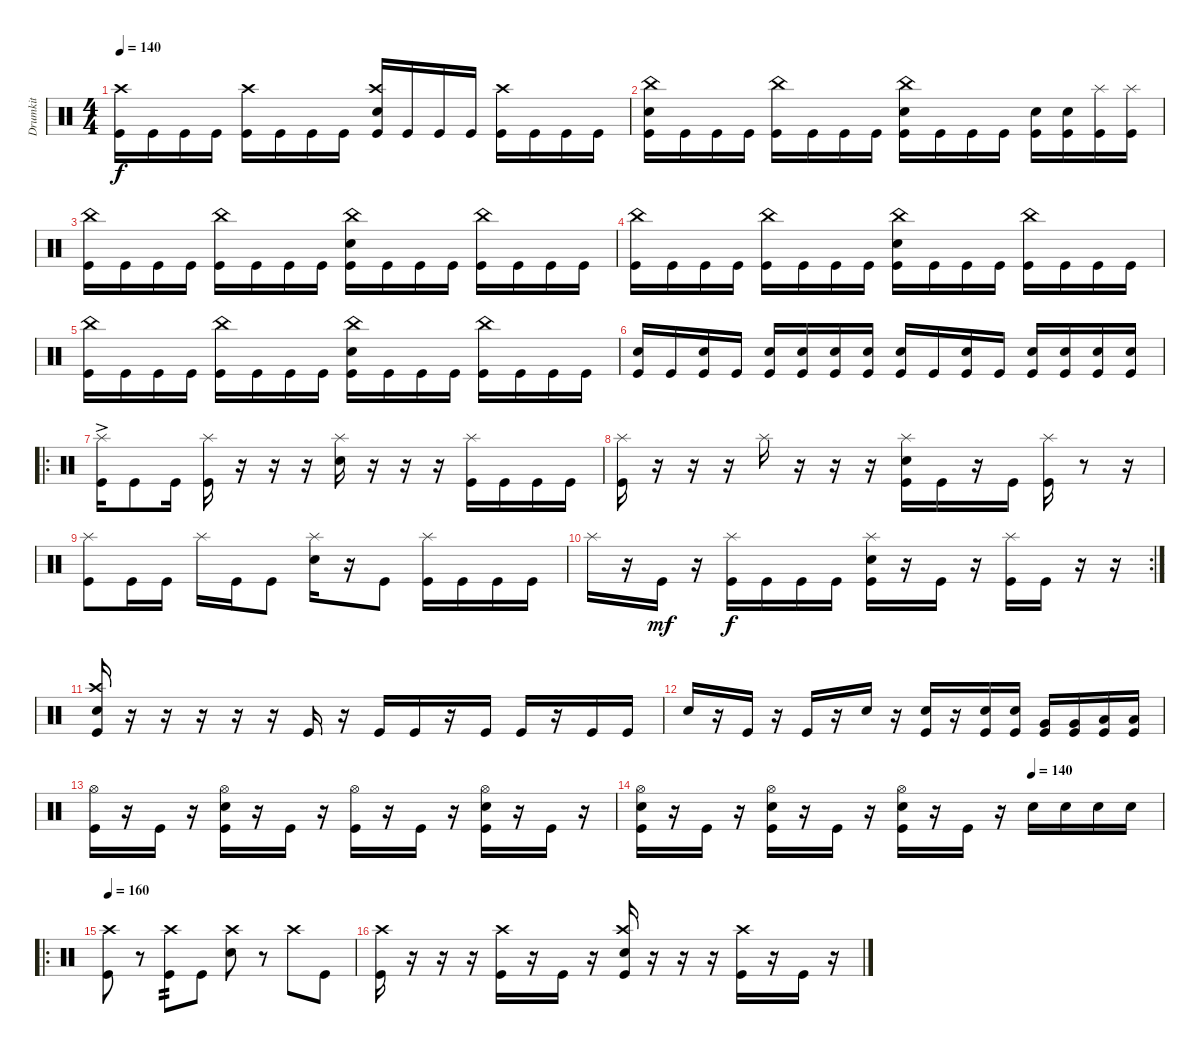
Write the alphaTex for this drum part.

\track ("Drumkit" "Drumkit") {instrument percussion}
\staff {score}
\articulation defaults
\ts (4 4)
\tempo 140
\clef neutral
\ks c
("Kick (hit)" "Crash high (hit)").16{dy f} "Kick (hit)".16 "Kick (hit)".16 "Kick (hit)".16 ("Kick (hit)" "Crash high (hit)").16 "Kick (hit)".16 "Kick (hit)".16 "Kick (hit)".16 ("Kick (hit)" "Crash high (hit)" "Snare (hit) 2").16 "Kick (hit)".16 "Kick (hit)".16 "Kick (hit)".16 ("Kick (hit)" "Crash high (hit)").16 "Kick (hit)".16 "Kick (hit)".16 "Kick (hit)".16 |
("Kick (hit)" "China (hit)" "Snare (hit) 2").16 "Kick (hit)".16 "Kick (hit)".16 "Kick (hit)".16 ("Kick (hit)" "China (hit)").16 "Kick (hit)".16 "Kick (hit)".16 "Kick (hit)".16 ("Kick (hit)" "China (hit)" "Snare (hit) 2").16 "Kick (hit)".16 "Kick (hit)".16 "Kick (hit)".16 ("Kick (hit)" "Snare (hit) 2").16 ("Kick (hit)" "Snare (hit) 2").16 ("Kick (hit)" "Splash (hit)").16 ("Kick (hit)" "Splash (hit)").16 |
("Kick (hit)" "China (hit)").16 "Kick (hit)".16 "Kick (hit)".16 "Kick (hit)".16 ("Kick (hit)" "China (hit)").16 "Kick (hit)".16 "Kick (hit)".16 "Kick (hit)".16 ("Kick (hit)" "China (hit)" "Snare (hit) 2").16 "Kick (hit)".16 "Kick (hit)".16 "Kick (hit)".16 ("Kick (hit)" "China (hit)").16 "Kick (hit)".16 "Kick (hit)".16 "Kick (hit)".16 |
("Kick (hit)" "China (hit)").16 "Kick (hit)".16 "Kick (hit)".16 "Kick (hit)".16 ("Kick (hit)" "China (hit)").16 "Kick (hit)".16 "Kick (hit)".16 "Kick (hit)".16 ("Kick (hit)" "China (hit)" "Snare (hit) 2").16 "Kick (hit)".16 "Kick (hit)".16 "Kick (hit)".16 ("Kick (hit)" "China (hit)").16 "Kick (hit)".16 "Kick (hit)".16 "Kick (hit)".16 |
("Kick (hit)" "China (hit)").16 "Kick (hit)".16 "Kick (hit)".16 "Kick (hit)".16 ("Kick (hit)" "China (hit)").16 "Kick (hit)".16 "Kick (hit)".16 "Kick (hit)".16 ("Kick (hit)" "China (hit)" "Snare (hit) 2").16 "Kick (hit)".16 "Kick (hit)".16 "Kick (hit)".16 ("Kick (hit)" "China (hit)").16 "Kick (hit)".16 "Kick (hit)".16 "Kick (hit)".16 |
("Kick (hit)" "Snare (hit) 2").16 "Kick (hit)".16 ("Kick (hit)" "Snare (hit) 2").16 "Kick (hit)".16 ("Kick (hit)" "Snare (hit) 2").16 ("Kick (hit)" "Snare (hit) 2").16 ("Kick (hit)" "Snare (hit) 2").16 ("Kick (hit)" "Snare (hit) 2").16 ("Kick (hit)" "Snare (hit) 2").16 "Kick (hit)".16 ("Kick (hit)" "Snare (hit) 2").16 "Kick (hit)".16 ("Kick (hit)" "Snare (hit) 2").16 ("Kick (hit)" "Snare (hit) 2").16 ("Kick (hit)" "Snare (hit) 2").16 ("Kick (hit)" "Snare (hit) 2").16 |
\ro
("Kick (hit)"{ac} "Splash (hit)"{ac}).16 "Kick (hit)".8 "Kick (hit)".16 ("Kick (hit)" "Splash (hit)").16 r.16 r.16 r.16 ("Snare (hit) 2" "Splash (hit)").16 r.16 r.16 r.16 ("Kick (hit)" "Splash (hit)").16 "Kick (hit)".16 "Kick (hit)".16 "Kick (hit)".16 |
("Kick (hit)" "Splash (hit)").16 r.16 r.16 r.16 "Splash (hit)".16 r.16 r.16 r.16 ("Kick (hit)" "Snare (hit) 2" "Splash (hit)").16 "Kick (hit)".16 r.16 "Kick (hit)".16 ("Kick (hit)" "Splash (hit)").16 r.8 r.16 |
("Kick (hit)" "Splash (hit)").8 "Kick (hit)".16 "Kick (hit)".16 "Splash (hit)".16 "Kick (hit)".16 "Kick (hit)".8 ("Snare (hit) 2" "Splash (hit)").16 r.16 "Kick (hit)".8 ("Kick (hit)" "Splash (hit)").16 "Kick (hit)".16 "Kick (hit)".16 "Kick (hit)".16 |
\rc 2 "Splash (hit)".16
r.16 "Kick (hit)".16{dy mf} r.16 ("Kick (hit)" "Splash (hit)").16{dy f} "Kick (hit)".16 "Kick (hit)".16 "Kick (hit)".16 ("Kick (hit)" "Snare (hit) 2" "Splash (hit)").16 r.16 "Kick (hit)".16 r.16 ("Kick (hit)" "Splash (hit)").16 "Kick (hit)".16 r.16 r.16 |
("Kick (hit)" "Snare (hit) 2" "Crash high (hit)").16 r.16 r.16 r.16 r.16 r.16 "Kick (hit)".16 r.16 "Kick (hit)".16 "Kick (hit)".16 r.16 "Kick (hit)".16 "Kick (hit)".16 r.16 "Kick (hit)".16 "Kick (hit)".16 |
"Snare (hit) 2".16 r.16 "Kick (hit)".16 r.16 "Kick (hit)".16 r.16 "Snare (hit) 2".16 r.16 ("Kick (hit)" "Snare (hit) 2").16 r.16 ("Kick (hit)" "Snare (hit) 2").16 ("Kick (hit)" "Snare (hit) 2").16 ("Kick (hit)" "Very Low Tom (hit)").16 ("Kick (hit)" "Very Low Tom (hit)").16 ("Kick (hit)" "Low Floor Tom (hit)").16 ("Kick (hit)" "Low Floor Tom (hit)").16 |
("Kick (hit)" "Hi-Hat (open)").16 r.16 "Kick (hit)".16 r.16 ("Kick (hit)" "Snare (hit) 2" "Hi-Hat (open)").16 r.16 "Kick (hit)".16 r.16 ("Kick (hit)" "Hi-Hat (open)").16 r.16 "Kick (hit)".16 r.16 ("Kick (hit)" "Snare (hit) 2" "Hi-Hat (open)").16 r.16 "Kick (hit)".16 r.16 |
\tempo (140 0.75)
("Snare (hit) 2" "Kick (hit)" "Hi-Hat (open)").16 r.16 "Kick (hit)".16 r.16 ("Snare (hit) 2" "Kick (hit)" "Hi-Hat (open)").16 r.16 "Kick (hit)".16 r.16 ("Snare (hit) 2" "Kick (hit)" "Hi-Hat (open)").16 r.16 "Kick (hit)".16 r.16 "Snare (hit) 2".16 "Snare (hit) 2".16 "Snare (hit) 2".16 "Snare (hit) 2".16 |
\ro
\tempo 160
("Crash high (hit)" "Kick (hit)").8 r.8 ("Crash high (hit)" "Kick (hit)").8{tp 2} "Kick (hit)".8 ("Crash high (hit)" "Snare (hit) 2").8 r.8 "Crash high (hit)".8 "Kick (hit)".8 |
("Crash high (hit)" "Kick (hit)").16 r.16 r.16 r.16 ("Crash high (hit)" "Kick (hit)").16 r.16 "Kick (hit)".16 r.16 ("Crash high (hit)" "Snare (hit) 2" "Kick (hit)").16 r.16 r.16 r.16 ("Crash high (hit)" "Kick (hit)").16 r.16 "Kick (hit)".16 r.16
